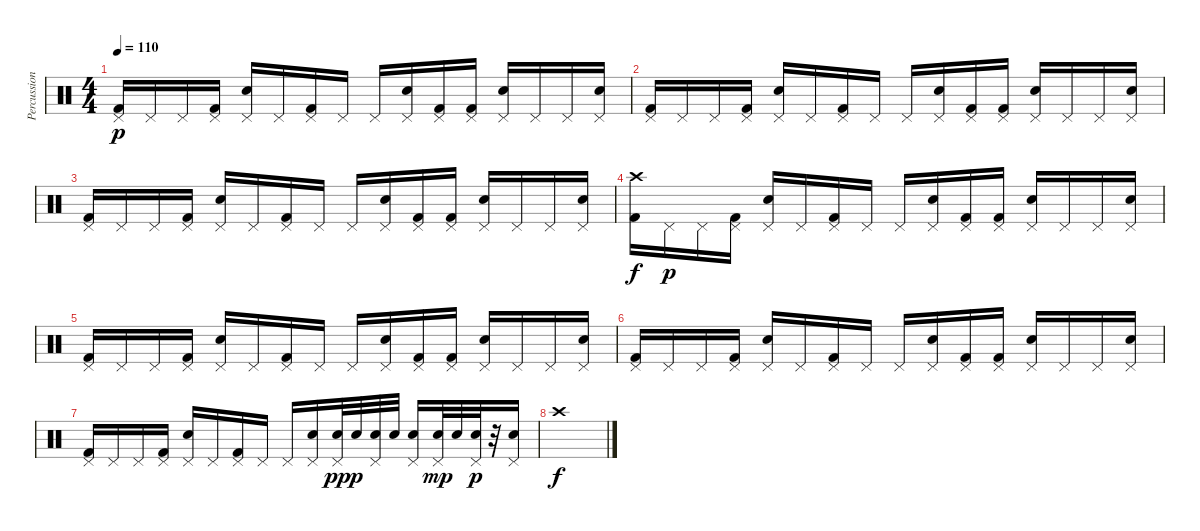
\track ("Percussion" "Percussion") {instrument percussion}
\staff {score}
\articulation defaults
\ts (4 4)
\tempo 110
\clef neutral
\ks c
("Pedal Hi-Hat (hit)" "Kick (hit) 2").16{dy p} "Pedal Hi-Hat (hit)".16 "Pedal Hi-Hat (hit)".16 ("Pedal Hi-Hat (hit)" "Kick (hit) 2").16 ("Pedal Hi-Hat (hit)" "Electric Snare (hit)").16 "Pedal Hi-Hat (hit)".16 ("Pedal Hi-Hat (hit)" "Kick (hit) 2").16 "Pedal Hi-Hat (hit)".16 "Pedal Hi-Hat (hit)".16 ("Pedal Hi-Hat (hit)" "Electric Snare (hit)").16 ("Pedal Hi-Hat (hit)" "Kick (hit) 2").16 ("Pedal Hi-Hat (hit)" "Kick (hit) 2").16 ("Pedal Hi-Hat (hit)" "Electric Snare (hit)").16 "Pedal Hi-Hat (hit)".16 "Pedal Hi-Hat (hit)".16 ("Pedal Hi-Hat (hit)" "Electric Snare (hit)").16 |
("Pedal Hi-Hat (hit)" "Kick (hit) 2").16 "Pedal Hi-Hat (hit)".16 "Pedal Hi-Hat (hit)".16 ("Pedal Hi-Hat (hit)" "Kick (hit) 2").16 ("Pedal Hi-Hat (hit)" "Electric Snare (hit)").16 "Pedal Hi-Hat (hit)".16 ("Pedal Hi-Hat (hit)" "Kick (hit) 2").16 "Pedal Hi-Hat (hit)".16 "Pedal Hi-Hat (hit)".16 ("Pedal Hi-Hat (hit)" "Electric Snare (hit)").16 ("Pedal Hi-Hat (hit)" "Kick (hit) 2").16 ("Pedal Hi-Hat (hit)" "Kick (hit) 2").16 ("Pedal Hi-Hat (hit)" "Electric Snare (hit)").16 "Pedal Hi-Hat (hit)".16 "Pedal Hi-Hat (hit)".16 ("Pedal Hi-Hat (hit)" "Electric Snare (hit)").16 |
("Pedal Hi-Hat (hit)" "Kick (hit) 2").16 "Pedal Hi-Hat (hit)".16 "Pedal Hi-Hat (hit)".16 ("Pedal Hi-Hat (hit)" "Kick (hit) 2").16 ("Pedal Hi-Hat (hit)" "Electric Snare (hit)").16 "Pedal Hi-Hat (hit)".16 ("Pedal Hi-Hat (hit)" "Kick (hit) 2").16 "Pedal Hi-Hat (hit)".16 "Pedal Hi-Hat (hit)".16 ("Pedal Hi-Hat (hit)" "Electric Snare (hit)").16 ("Pedal Hi-Hat (hit)" "Kick (hit) 2").16 ("Pedal Hi-Hat (hit)" "Kick (hit) 2").16 ("Pedal Hi-Hat (hit)" "Electric Snare (hit)").16 "Pedal Hi-Hat (hit)".16 "Pedal Hi-Hat (hit)".16 ("Pedal Hi-Hat (hit)" "Electric Snare (hit)").16 |
("Crash high (hit)" "Kick (hit) 2").16{dy f volume 16} "Pedal Hi-Hat (hit)".16{dy p} "Pedal Hi-Hat (hit)".16 ("Pedal Hi-Hat (hit)" "Kick (hit) 2").16 ("Pedal Hi-Hat (hit)" "Electric Snare (hit)").16 "Pedal Hi-Hat (hit)".16 ("Pedal Hi-Hat (hit)" "Kick (hit) 2").16 "Pedal Hi-Hat (hit)".16 "Pedal Hi-Hat (hit)".16 ("Pedal Hi-Hat (hit)" "Electric Snare (hit)").16 ("Pedal Hi-Hat (hit)" "Kick (hit) 2").16 ("Pedal Hi-Hat (hit)" "Kick (hit) 2").16 ("Pedal Hi-Hat (hit)" "Electric Snare (hit)").16 "Pedal Hi-Hat (hit)".16 "Pedal Hi-Hat (hit)".16 ("Pedal Hi-Hat (hit)" "Electric Snare (hit)").16 |
("Pedal Hi-Hat (hit)" "Kick (hit) 2").16 "Pedal Hi-Hat (hit)".16 "Pedal Hi-Hat (hit)".16 ("Pedal Hi-Hat (hit)" "Kick (hit) 2").16 ("Pedal Hi-Hat (hit)" "Electric Snare (hit)").16 "Pedal Hi-Hat (hit)".16 ("Pedal Hi-Hat (hit)" "Kick (hit) 2").16 "Pedal Hi-Hat (hit)".16 "Pedal Hi-Hat (hit)".16 ("Pedal Hi-Hat (hit)" "Electric Snare (hit)").16 ("Pedal Hi-Hat (hit)" "Kick (hit) 2").16 ("Pedal Hi-Hat (hit)" "Kick (hit) 2").16 ("Pedal Hi-Hat (hit)" "Electric Snare (hit)").16 "Pedal Hi-Hat (hit)".16 "Pedal Hi-Hat (hit)".16 ("Pedal Hi-Hat (hit)" "Electric Snare (hit)").16 |
("Pedal Hi-Hat (hit)" "Kick (hit) 2").16 "Pedal Hi-Hat (hit)".16 "Pedal Hi-Hat (hit)".16 ("Pedal Hi-Hat (hit)" "Kick (hit) 2").16 ("Pedal Hi-Hat (hit)" "Electric Snare (hit)").16 "Pedal Hi-Hat (hit)".16 ("Pedal Hi-Hat (hit)" "Kick (hit) 2").16 "Pedal Hi-Hat (hit)".16 "Pedal Hi-Hat (hit)".16 ("Pedal Hi-Hat (hit)" "Electric Snare (hit)").16 ("Pedal Hi-Hat (hit)" "Kick (hit) 2").16 ("Pedal Hi-Hat (hit)" "Kick (hit) 2").16 ("Pedal Hi-Hat (hit)" "Electric Snare (hit)").16 "Pedal Hi-Hat (hit)".16 "Pedal Hi-Hat (hit)".16 ("Pedal Hi-Hat (hit)" "Electric Snare (hit)").16 |
("Pedal Hi-Hat (hit)" "Kick (hit) 2").16 "Pedal Hi-Hat (hit)".16 "Pedal Hi-Hat (hit)".16 ("Pedal Hi-Hat (hit)" "Kick (hit) 2").16 ("Pedal Hi-Hat (hit)" "Electric Snare (hit)").16 "Pedal Hi-Hat (hit)".16 ("Pedal Hi-Hat (hit)" "Kick (hit) 2").16 "Pedal Hi-Hat (hit)".16 "Pedal Hi-Hat (hit)".16 ("Pedal Hi-Hat (hit)" "Electric Snare (hit)").16 ("Pedal Hi-Hat (hit)" "Snare (hit)").32{dy pp} "Snare (hit)".32{dy p} ("Pedal Hi-Hat (hit)" "Snare (hit)").32 "Snare (hit)".32 ("Pedal Hi-Hat (hit)" "Electric Snare (hit)").16 ("Pedal Hi-Hat (hit)" "Snare (hit)").32{dy mp} "Snare (hit)".32 ("Pedal Hi-Hat (hit)" "Snare (hit)").32{dy p} r.32 ("Pedal Hi-Hat (hit)" "Electric Snare (hit)").16 |
"Crash high (hit)".1{dy f}
